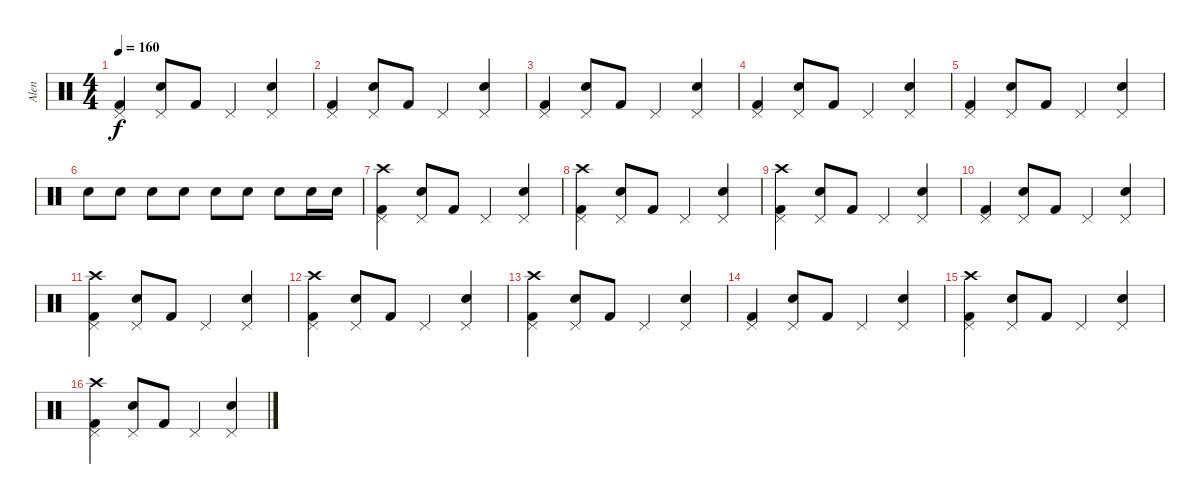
\track ("Alen" "Alen") {instrument percussion}
\staff {score}
\articulation defaults
\ts (4 4)
\tempo 160
\clef neutral
\ks c
("Pedal Hi-Hat (hit)" "Kick (hit) 2").4{dy f} ("Pedal Hi-Hat (hit)" "Snare (hit) 2").8 "Kick (hit) 2".8 "Pedal Hi-Hat (hit)".4 ("Pedal Hi-Hat (hit)" "Snare (hit) 2").4 |
("Pedal Hi-Hat (hit)" "Kick (hit) 2").4 ("Pedal Hi-Hat (hit)" "Snare (hit) 2").8 "Kick (hit) 2".8 "Pedal Hi-Hat (hit)".4 ("Pedal Hi-Hat (hit)" "Snare (hit) 2").4 |
("Pedal Hi-Hat (hit)" "Kick (hit) 2").4 ("Pedal Hi-Hat (hit)" "Snare (hit) 2").8 "Kick (hit) 2".8 "Pedal Hi-Hat (hit)".4 ("Pedal Hi-Hat (hit)" "Snare (hit) 2").4 |
("Pedal Hi-Hat (hit)" "Kick (hit) 2").4 ("Pedal Hi-Hat (hit)" "Snare (hit) 2").8 "Kick (hit) 2".8 "Pedal Hi-Hat (hit)".4 ("Pedal Hi-Hat (hit)" "Snare (hit) 2").4 |
("Pedal Hi-Hat (hit)" "Kick (hit) 2").4 ("Pedal Hi-Hat (hit)" "Snare (hit) 2").8 "Kick (hit) 2".8 "Pedal Hi-Hat (hit)".4 ("Pedal Hi-Hat (hit)" "Snare (hit) 2").4 |
"Snare (hit) 2".8 "Snare (hit) 2".8 "Snare (hit) 2".8 "Snare (hit) 2".8 "Snare (hit) 2".8 "Snare (hit) 2".8 "Snare (hit) 2".8 "Snare (hit) 2".16 "Snare (hit) 2".16 |
("Crash high (hit)" "Pedal Hi-Hat (hit)" "Kick (hit) 2").4 ("Pedal Hi-Hat (hit)" "Snare (hit) 2").8 "Kick (hit) 2".8 "Pedal Hi-Hat (hit)".4 ("Pedal Hi-Hat (hit)" "Snare (hit) 2").4 |
("Crash high (hit)" "Pedal Hi-Hat (hit)" "Kick (hit) 2").4 ("Pedal Hi-Hat (hit)" "Snare (hit) 2").8 "Kick (hit) 2".8 "Pedal Hi-Hat (hit)".4 ("Pedal Hi-Hat (hit)" "Snare (hit) 2").4 |
("Crash high (hit)" "Pedal Hi-Hat (hit)" "Kick (hit) 2").4 ("Pedal Hi-Hat (hit)" "Snare (hit) 2").8 "Kick (hit) 2".8 "Pedal Hi-Hat (hit)".4 ("Pedal Hi-Hat (hit)" "Snare (hit) 2").4 |
("Pedal Hi-Hat (hit)" "Kick (hit) 2").4 ("Pedal Hi-Hat (hit)" "Snare (hit) 2").8 "Kick (hit) 2".8 "Pedal Hi-Hat (hit)".4 ("Pedal Hi-Hat (hit)" "Snare (hit) 2").4 |
("Crash high (hit)" "Pedal Hi-Hat (hit)" "Kick (hit) 2").4 ("Pedal Hi-Hat (hit)" "Snare (hit) 2").8 "Kick (hit) 2".8 "Pedal Hi-Hat (hit)".4 ("Pedal Hi-Hat (hit)" "Snare (hit) 2").4 |
("Crash high (hit)" "Pedal Hi-Hat (hit)" "Kick (hit) 2").4 ("Pedal Hi-Hat (hit)" "Snare (hit) 2").8 "Kick (hit) 2".8 "Pedal Hi-Hat (hit)".4 ("Pedal Hi-Hat (hit)" "Snare (hit) 2").4 |
("Crash high (hit)" "Pedal Hi-Hat (hit)" "Kick (hit) 2").4 ("Pedal Hi-Hat (hit)" "Snare (hit) 2").8 "Kick (hit) 2".8 "Pedal Hi-Hat (hit)".4 ("Pedal Hi-Hat (hit)" "Snare (hit) 2").4 |
("Pedal Hi-Hat (hit)" "Kick (hit) 2").4 ("Pedal Hi-Hat (hit)" "Snare (hit) 2").8 "Kick (hit) 2".8 "Pedal Hi-Hat (hit)".4 ("Pedal Hi-Hat (hit)" "Snare (hit) 2").4 |
("Crash high (hit)" "Pedal Hi-Hat (hit)" "Kick (hit) 2").4 ("Pedal Hi-Hat (hit)" "Snare (hit) 2").8 "Kick (hit) 2".8 "Pedal Hi-Hat (hit)".4 ("Pedal Hi-Hat (hit)" "Snare (hit) 2").4 |
("Crash high (hit)" "Pedal Hi-Hat (hit)" "Kick (hit) 2").4 ("Pedal Hi-Hat (hit)" "Snare (hit) 2").8 "Kick (hit) 2".8 "Pedal Hi-Hat (hit)".4 ("Pedal Hi-Hat (hit)" "Snare (hit) 2").4
